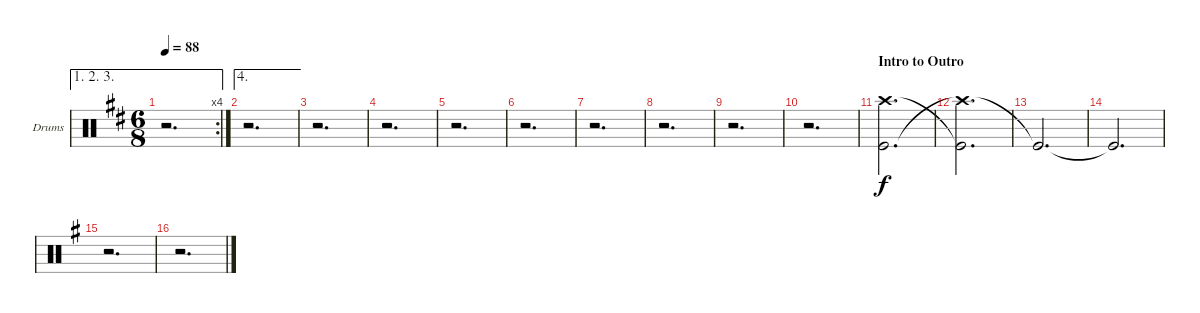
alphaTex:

\bracketExtendMode groupsimilarinstruments
\firstSystemTrackNameOrientation horizontal
\otherSystemsTrackNameOrientation horizontal
\track ("Drumkit" "Drums") {instrument percussion}
\staff {score}
\articulation defaults
\ae (1 2 3)
\rc 4
\ts (6 8)
\tempo 88
\clef neutral
\ks d
r.2{d dy f} |
\ae 4
r.2{d} |
r.2{d} |
r.2{d} |
r.2{d} |
r.2{d} |
r.2{d} |
r.2{d} |
r.2{d} |
r.2{d} |
\section ("" "Intro to Outro")
("Kick (hit)" "Crash high (hit)").2{d} |
("Crash high (hit)"{t} "Kick (hit)"{t}).2{d} |
"Kick (hit)"{t}.2{d} |
"Kick (hit)"{t}.2{d} |
\ks eminor
r.2{d} |
r.2{d}
